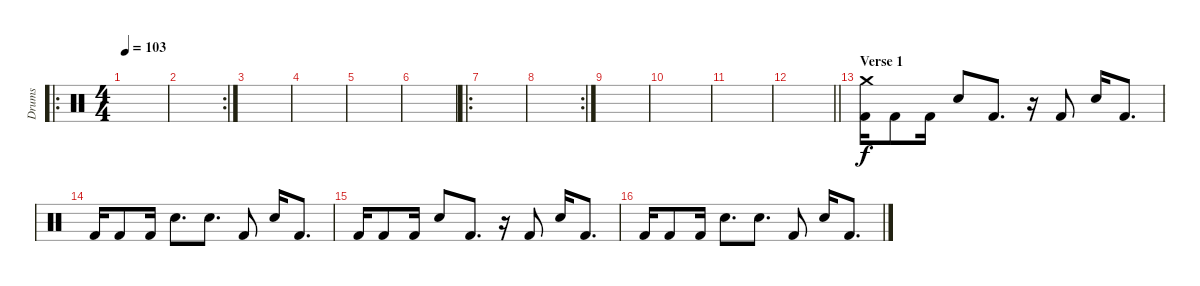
\track ("Drums" "Drums") {instrument percussion}
\staff {score}
\articulation defaults
\ro
\ts (4 4)
\tempo 103
\clef neutral
\ks c
|
\rc 2
|
|
|
|
|
\ro
|
\rc 2
|
|
|
|
\barLineRight lightlight
|
\section ("" "Verse 1")
("Kick (hit) 2" "Crash medium (hit)").16 "Kick (hit) 2".8 "Kick (hit) 2".16 "Electric Snare (hit)".8 "Kick (hit) 2".8{d} r.16 "Kick (hit) 2".8 "Electric Snare (hit)".16 "Kick (hit) 2".8{d} |
"Kick (hit) 2".16 "Kick (hit) 2".8 "Kick (hit) 2".16 "Electric Snare (hit)".8{d} "Electric Snare (hit)".8{d} "Kick (hit) 2".8 "Electric Snare (hit)".16 "Kick (hit) 2".8{d} |
"Kick (hit) 2".16 "Kick (hit) 2".8 "Kick (hit) 2".16 "Electric Snare (hit)".8 "Kick (hit) 2".8{d} r.16 "Kick (hit) 2".8 "Electric Snare (hit)".16 "Kick (hit) 2".8{d} |
"Kick (hit) 2".16 "Kick (hit) 2".8 "Kick (hit) 2".16 "Electric Snare (hit)".8{d} "Electric Snare (hit)".8{d} "Kick (hit) 2".8 "Electric Snare (hit)".16 "Kick (hit) 2".8{d}
